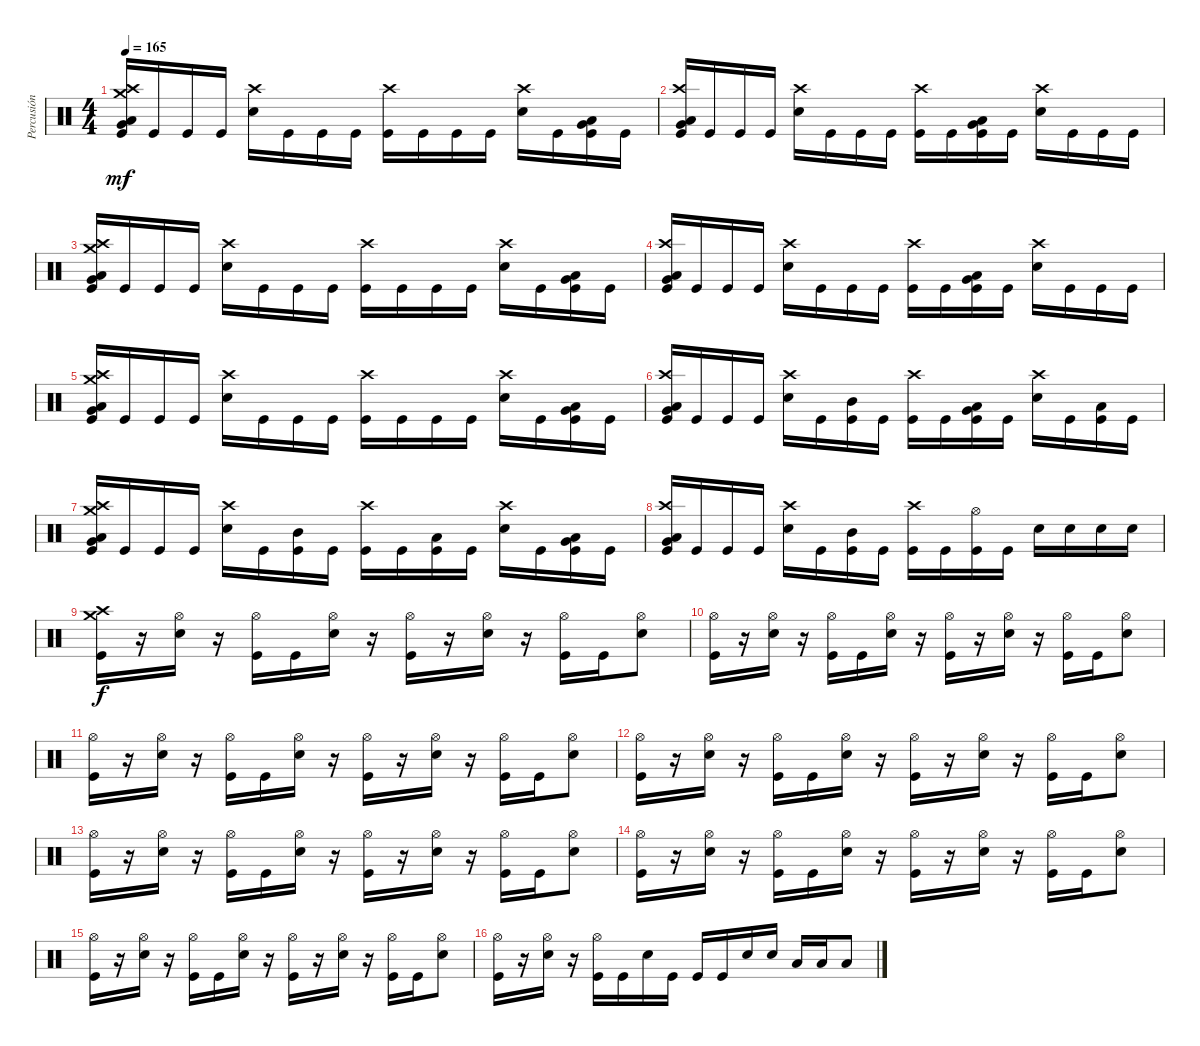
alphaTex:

\track ("Percusión" "Percusión") {instrument percussion}
\staff {score}
\articulation defaults
\ts (4 4)
\tempo 165
\clef neutral
\ks c
("Very Low Tom (hit)" "Low Tom (hit)" "Crash medium (hit)" "Crash high (hit)" "Kick (hit)").16{dy mf} "Kick (hit)".16 "Kick (hit)".16 "Kick (hit)".16 ("Crash high (hit)" "Electric Snare (hit)").16 "Kick (hit)".16 "Kick (hit)".16 "Kick (hit)".16 ("Crash high (hit)" "Kick (hit)").16 "Kick (hit)".16 "Kick (hit)".16 "Kick (hit)".16 ("Crash high (hit)" "Electric Snare (hit)").16 "Kick (hit)".16 ("Very Low Tom (hit)" "Low Tom (hit)" "Kick (hit)").16 "Kick (hit)".16 |
("Very Low Tom (hit)" "Low Tom (hit)" "Crash high (hit)" "Kick (hit)").16 "Kick (hit)".16 "Kick (hit)".16 "Kick (hit)".16 ("Crash high (hit)" "Electric Snare (hit)").16 "Kick (hit)".16 "Kick (hit)".16 "Kick (hit)".16 ("Crash high (hit)" "Kick (hit)").16 "Kick (hit)".16 ("Very Low Tom (hit)" "Low Tom (hit)" "Kick (hit)").16 "Kick (hit)".16 ("Crash high (hit)" "Electric Snare (hit)").16 "Kick (hit)".16 "Kick (hit)".16 "Kick (hit)".16 |
("Very Low Tom (hit)" "Low Tom (hit)" "Crash medium (hit)" "Crash high (hit)" "Kick (hit)").16 "Kick (hit)".16 "Kick (hit)".16 "Kick (hit)".16 ("Crash high (hit)" "Electric Snare (hit)").16 "Kick (hit)".16 "Kick (hit)".16 "Kick (hit)".16 ("Crash high (hit)" "Kick (hit)").16 "Kick (hit)".16 "Kick (hit)".16 "Kick (hit)".16 ("Crash high (hit)" "Electric Snare (hit)").16 "Kick (hit)".16 ("Very Low Tom (hit)" "Low Tom (hit)" "Kick (hit)").16 "Kick (hit)".16 |
("Very Low Tom (hit)" "Low Tom (hit)" "Crash high (hit)" "Kick (hit)").16 "Kick (hit)".16 "Kick (hit)".16 "Kick (hit)".16 ("Crash high (hit)" "Electric Snare (hit)").16 "Kick (hit)".16 "Kick (hit)".16 "Kick (hit)".16 ("Crash high (hit)" "Kick (hit)").16 "Kick (hit)".16 ("Very Low Tom (hit)" "Low Tom (hit)" "Kick (hit)").16 "Kick (hit)".16 ("Crash high (hit)" "Electric Snare (hit)").16 "Kick (hit)".16 "Kick (hit)".16 "Kick (hit)".16 |
("Very Low Tom (hit)" "Low Tom (hit)" "Crash medium (hit)" "Crash high (hit)" "Kick (hit)").16 "Kick (hit)".16 "Kick (hit)".16 "Kick (hit)".16 ("Crash high (hit)" "Electric Snare (hit)").16 "Kick (hit)".16 "Kick (hit)".16 "Kick (hit)".16 ("Crash high (hit)" "Kick (hit)").16 "Kick (hit)".16 "Kick (hit)".16 "Kick (hit)".16 ("Crash high (hit)" "Electric Snare (hit)").16 "Kick (hit)".16 ("Very Low Tom (hit)" "Low Tom (hit)" "Kick (hit)").16 "Kick (hit)".16 |
("Very Low Tom (hit)" "Low Tom (hit)" "Crash high (hit)" "Kick (hit)").16 "Kick (hit)".16 "Kick (hit)".16 "Kick (hit)".16 ("Crash high (hit)" "Electric Snare (hit)").16 "Kick (hit)".16 ("Mid Tom (hit)" "Kick (hit)").16 "Kick (hit)".16 ("Crash high (hit)" "Kick (hit)").16 "Kick (hit)".16 ("Very Low Tom (hit)" "Low Tom (hit)" "Kick (hit)").16 "Kick (hit)".16 ("Crash high (hit)" "Electric Snare (hit)").16 "Kick (hit)".16 ("Low Tom (hit)" "Kick (hit)").16 "Kick (hit)".16 |
("Very Low Tom (hit)" "Low Tom (hit)" "Crash medium (hit)" "Crash high (hit)" "Kick (hit)").16 "Kick (hit)".16 "Kick (hit)".16 "Kick (hit)".16 ("Crash high (hit)" "Electric Snare (hit)").16 "Kick (hit)".16 ("Mid Tom (hit)" "Kick (hit)").16 "Kick (hit)".16 ("Crash high (hit)" "Kick (hit)").16 "Kick (hit)".16 ("Low Tom (hit)" "Kick (hit)").16 "Kick (hit)".16 ("Crash high (hit)" "Electric Snare (hit)").16 "Kick (hit)".16 ("Very Low Tom (hit)" "Low Tom (hit)" "Kick (hit)").16 "Kick (hit)".16 |
("Very Low Tom (hit)" "Low Tom (hit)" "Crash high (hit)" "Kick (hit)").16 "Kick (hit)".16 "Kick (hit)".16 "Kick (hit)".16 ("Crash high (hit)" "Electric Snare (hit)").16 "Kick (hit)".16 ("Mid Tom (hit)" "Kick (hit)").16 "Kick (hit)".16 ("Crash high (hit)" "Kick (hit)").16 "Kick (hit)".16 ("Hi-Hat (open)" "Kick (hit)").16 "Kick (hit)".16 "Electric Snare (hit)".16 "Electric Snare (hit)".16 "Electric Snare (hit)".16 "Electric Snare (hit)".16 |
("Crash medium (hit)" "Crash high (hit)" "Kick (hit)").16{dy f} r.16 ("Hi-Hat (open)" "Electric Snare (hit)").16 r.16 ("Hi-Hat (open)" "Kick (hit)").16 "Kick (hit)".16 ("Hi-Hat (open)" "Electric Snare (hit)").16 r.16 ("Hi-Hat (open)" "Kick (hit)").16 r.16 ("Hi-Hat (open)" "Electric Snare (hit)").16 r.16 ("Hi-Hat (open)" "Kick (hit)").16 "Kick (hit)".16 ("Hi-Hat (open)" "Electric Snare (hit)").8 |
("Hi-Hat (open)" "Kick (hit)").16 r.16 ("Hi-Hat (open)" "Electric Snare (hit)").16 r.16 ("Hi-Hat (open)" "Kick (hit)").16 "Kick (hit)".16 ("Hi-Hat (open)" "Electric Snare (hit)").16 r.16 ("Hi-Hat (open)" "Kick (hit)").16 r.16 ("Hi-Hat (open)" "Electric Snare (hit)").16 r.16 ("Hi-Hat (open)" "Kick (hit)").16 "Kick (hit)".16 ("Hi-Hat (open)" "Electric Snare (hit)").8 |
("Hi-Hat (open)" "Kick (hit)").16 r.16 ("Hi-Hat (open)" "Electric Snare (hit)").16 r.16 ("Hi-Hat (open)" "Kick (hit)").16 "Kick (hit)".16 ("Hi-Hat (open)" "Electric Snare (hit)").16 r.16 ("Hi-Hat (open)" "Kick (hit)").16 r.16 ("Hi-Hat (open)" "Electric Snare (hit)").16 r.16 ("Hi-Hat (open)" "Kick (hit)").16 "Kick (hit)".16 ("Hi-Hat (open)" "Electric Snare (hit)").8 |
("Hi-Hat (open)" "Kick (hit)").16 r.16 ("Hi-Hat (open)" "Electric Snare (hit)").16 r.16 ("Hi-Hat (open)" "Kick (hit)").16 "Kick (hit)".16 ("Hi-Hat (open)" "Electric Snare (hit)").16 r.16 ("Hi-Hat (open)" "Kick (hit)").16 r.16 ("Hi-Hat (open)" "Electric Snare (hit)").16 r.16 ("Hi-Hat (open)" "Kick (hit)").16 "Kick (hit)".16 ("Hi-Hat (open)" "Electric Snare (hit)").8 |
("Hi-Hat (open)" "Kick (hit)").16 r.16 ("Hi-Hat (open)" "Electric Snare (hit)").16 r.16 ("Hi-Hat (open)" "Kick (hit)").16 "Kick (hit)".16 ("Hi-Hat (open)" "Electric Snare (hit)").16 r.16 ("Hi-Hat (open)" "Kick (hit)").16 r.16 ("Hi-Hat (open)" "Electric Snare (hit)").16 r.16 ("Hi-Hat (open)" "Kick (hit)").16 "Kick (hit)".16 ("Hi-Hat (open)" "Electric Snare (hit)").8 |
("Hi-Hat (open)" "Kick (hit)").16 r.16 ("Hi-Hat (open)" "Electric Snare (hit)").16 r.16 ("Hi-Hat (open)" "Kick (hit)").16 "Kick (hit)".16 ("Hi-Hat (open)" "Electric Snare (hit)").16 r.16 ("Hi-Hat (open)" "Kick (hit)").16 r.16 ("Hi-Hat (open)" "Electric Snare (hit)").16 r.16 ("Hi-Hat (open)" "Kick (hit)").16 "Kick (hit)".16 ("Hi-Hat (open)" "Electric Snare (hit)").8 |
("Hi-Hat (open)" "Kick (hit)").16 r.16 ("Hi-Hat (open)" "Electric Snare (hit)").16 r.16 ("Hi-Hat (open)" "Kick (hit)").16 "Kick (hit)".16 ("Hi-Hat (open)" "Electric Snare (hit)").16 r.16 ("Hi-Hat (open)" "Kick (hit)").16 r.16 ("Hi-Hat (open)" "Electric Snare (hit)").16 r.16 ("Hi-Hat (open)" "Kick (hit)").16 "Kick (hit)".16 ("Hi-Hat (open)" "Electric Snare (hit)").8 |
("Hi-Hat (open)" "Kick (hit)").16 r.16 ("Hi-Hat (open)" "Electric Snare (hit)").16 r.16 ("Hi-Hat (open)" "Kick (hit)").16 "Kick (hit)".16 "Electric Snare (hit)".16 "Kick (hit)".16 "Kick (hit)".16 "Kick (hit)".16 "Electric Snare (hit)".16 "Electric Snare (hit)".16 "Low Tom (hit)".16 "Low Tom (hit)".16 "Low Tom (hit)".8
